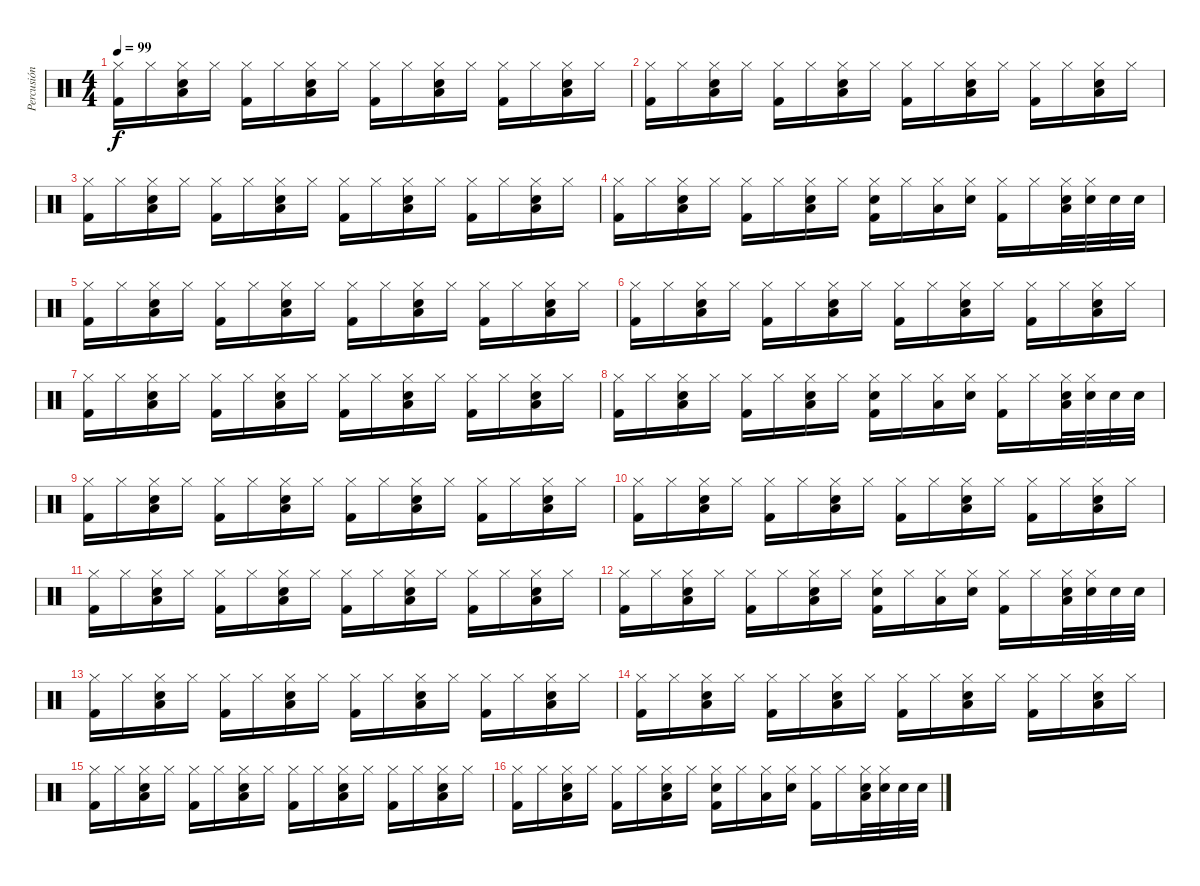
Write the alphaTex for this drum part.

\track ("Percusión" "Percusión") {instrument percussion}
\staff {score}
\articulation defaults
\ts (4 4)
\tempo 99
\clef neutral
\ks c
("Hi-Hat (closed)" "Kick (hit) 2").16{dy f} "Hi-Hat (closed)".16 ("Hi-Hat (closed)" "Snare (hit) 2" "Low Tom (hit)").16 "Hi-Hat (closed)".16 ("Hi-Hat (closed)" "Kick (hit) 2").16 "Hi-Hat (closed)".16 ("Hi-Hat (closed)" "Snare (hit) 2" "Low Tom (hit)").16 "Hi-Hat (closed)".16 ("Hi-Hat (closed)" "Kick (hit) 2").16 "Hi-Hat (closed)".16 ("Hi-Hat (closed)" "Snare (hit) 2" "Low Tom (hit)").16 "Hi-Hat (closed)".16 ("Hi-Hat (closed)" "Kick (hit) 2").16 "Hi-Hat (closed)".16 ("Hi-Hat (closed)" "Snare (hit) 2" "Low Tom (hit)").16 "Hi-Hat (closed)".16 |
("Hi-Hat (closed)" "Kick (hit) 2").16 "Hi-Hat (closed)".16 ("Hi-Hat (closed)" "Snare (hit) 2" "Low Tom (hit)").16 "Hi-Hat (closed)".16 ("Hi-Hat (closed)" "Kick (hit) 2").16 "Hi-Hat (closed)".16 ("Hi-Hat (closed)" "Snare (hit) 2" "Low Tom (hit)").16 "Hi-Hat (closed)".16 ("Hi-Hat (closed)" "Kick (hit) 2").16 "Hi-Hat (closed)".16 ("Hi-Hat (closed)" "Snare (hit) 2" "Low Tom (hit)").16 "Hi-Hat (closed)".16 ("Hi-Hat (closed)" "Kick (hit) 2").16 "Hi-Hat (closed)".16 ("Hi-Hat (closed)" "Snare (hit) 2" "Low Tom (hit)").16 "Hi-Hat (closed)".16 |
("Hi-Hat (closed)" "Kick (hit) 2").16 "Hi-Hat (closed)".16 ("Hi-Hat (closed)" "Snare (hit) 2" "Low Tom (hit)").16 "Hi-Hat (closed)".16 ("Hi-Hat (closed)" "Kick (hit) 2").16 "Hi-Hat (closed)".16 ("Hi-Hat (closed)" "Snare (hit) 2" "Low Tom (hit)").16 "Hi-Hat (closed)".16 ("Hi-Hat (closed)" "Kick (hit) 2").16 "Hi-Hat (closed)".16 ("Hi-Hat (closed)" "Snare (hit) 2" "Low Tom (hit)").16 "Hi-Hat (closed)".16 ("Hi-Hat (closed)" "Kick (hit) 2").16 "Hi-Hat (closed)".16 ("Hi-Hat (closed)" "Snare (hit) 2" "Low Tom (hit)").16 "Hi-Hat (closed)".16 |
("Hi-Hat (closed)" "Kick (hit) 2").16 "Hi-Hat (closed)".16 ("Hi-Hat (closed)" "Snare (hit) 2" "Low Tom (hit)").16 "Hi-Hat (closed)".16 ("Hi-Hat (closed)" "Kick (hit) 2").16 "Hi-Hat (closed)".16 ("Hi-Hat (closed)" "Snare (hit) 2" "Low Tom (hit)").16 "Hi-Hat (closed)".16 ("Hi-Hat (closed)" "Snare (hit) 2" "Kick (hit) 2").16 "Hi-Hat (closed)".16 ("Hi-Hat (closed)" "Low Tom (hit)").16 ("Hi-Hat (closed)" "Snare (hit) 2").16 ("Hi-Hat (closed)" "Kick (hit) 2").16 "Hi-Hat (closed)".16 ("Hi-Hat (closed)" "Snare (hit) 2" "Low Tom (hit)").32 ("Hi-Hat (closed)" "Snare (hit) 2").32 "Snare (hit) 2".32 "Snare (hit) 2".32 |
("Hi-Hat (closed)" "Kick (hit) 2").16 "Hi-Hat (closed)".16 ("Hi-Hat (closed)" "Snare (hit) 2" "Low Tom (hit)").16 "Hi-Hat (closed)".16 ("Hi-Hat (closed)" "Kick (hit) 2").16 "Hi-Hat (closed)".16 ("Hi-Hat (closed)" "Snare (hit) 2" "Low Tom (hit)").16 "Hi-Hat (closed)".16 ("Hi-Hat (closed)" "Kick (hit) 2").16 "Hi-Hat (closed)".16 ("Hi-Hat (closed)" "Snare (hit) 2" "Low Tom (hit)").16 "Hi-Hat (closed)".16 ("Hi-Hat (closed)" "Kick (hit) 2").16 "Hi-Hat (closed)".16 ("Hi-Hat (closed)" "Snare (hit) 2" "Low Tom (hit)").16 "Hi-Hat (closed)".16 |
("Hi-Hat (closed)" "Kick (hit) 2").16 "Hi-Hat (closed)".16 ("Hi-Hat (closed)" "Snare (hit) 2" "Low Tom (hit)").16 "Hi-Hat (closed)".16 ("Hi-Hat (closed)" "Kick (hit) 2").16 "Hi-Hat (closed)".16 ("Hi-Hat (closed)" "Snare (hit) 2" "Low Tom (hit)").16 "Hi-Hat (closed)".16 ("Hi-Hat (closed)" "Kick (hit) 2").16 "Hi-Hat (closed)".16 ("Hi-Hat (closed)" "Snare (hit) 2" "Low Tom (hit)").16 "Hi-Hat (closed)".16 ("Hi-Hat (closed)" "Kick (hit) 2").16 "Hi-Hat (closed)".16 ("Hi-Hat (closed)" "Snare (hit) 2" "Low Tom (hit)").16 "Hi-Hat (closed)".16 |
("Hi-Hat (closed)" "Kick (hit) 2").16 "Hi-Hat (closed)".16 ("Hi-Hat (closed)" "Snare (hit) 2" "Low Tom (hit)").16 "Hi-Hat (closed)".16 ("Hi-Hat (closed)" "Kick (hit) 2").16 "Hi-Hat (closed)".16 ("Hi-Hat (closed)" "Snare (hit) 2" "Low Tom (hit)").16 "Hi-Hat (closed)".16 ("Hi-Hat (closed)" "Kick (hit) 2").16 "Hi-Hat (closed)".16 ("Hi-Hat (closed)" "Snare (hit) 2" "Low Tom (hit)").16 "Hi-Hat (closed)".16 ("Hi-Hat (closed)" "Kick (hit) 2").16 "Hi-Hat (closed)".16 ("Hi-Hat (closed)" "Snare (hit) 2" "Low Tom (hit)").16 "Hi-Hat (closed)".16 |
("Hi-Hat (closed)" "Kick (hit) 2").16 "Hi-Hat (closed)".16 ("Hi-Hat (closed)" "Snare (hit) 2" "Low Tom (hit)").16 "Hi-Hat (closed)".16 ("Hi-Hat (closed)" "Kick (hit) 2").16 "Hi-Hat (closed)".16 ("Hi-Hat (closed)" "Snare (hit) 2" "Low Tom (hit)").16 "Hi-Hat (closed)".16 ("Hi-Hat (closed)" "Snare (hit) 2" "Kick (hit) 2").16 "Hi-Hat (closed)".16 ("Hi-Hat (closed)" "Low Tom (hit)").16 ("Hi-Hat (closed)" "Snare (hit) 2").16 ("Hi-Hat (closed)" "Kick (hit) 2").16 "Hi-Hat (closed)".16 ("Hi-Hat (closed)" "Snare (hit) 2" "Low Tom (hit)").32 ("Hi-Hat (closed)" "Snare (hit) 2").32 "Snare (hit) 2".32 "Snare (hit) 2".32 |
("Hi-Hat (closed)" "Kick (hit) 2").16 "Hi-Hat (closed)".16 ("Hi-Hat (closed)" "Snare (hit) 2" "Low Tom (hit)").16 "Hi-Hat (closed)".16 ("Hi-Hat (closed)" "Kick (hit) 2").16 "Hi-Hat (closed)".16 ("Hi-Hat (closed)" "Snare (hit) 2" "Low Tom (hit)").16 "Hi-Hat (closed)".16 ("Hi-Hat (closed)" "Kick (hit) 2").16 "Hi-Hat (closed)".16 ("Hi-Hat (closed)" "Snare (hit) 2" "Low Tom (hit)").16 "Hi-Hat (closed)".16 ("Hi-Hat (closed)" "Kick (hit) 2").16 "Hi-Hat (closed)".16 ("Hi-Hat (closed)" "Snare (hit) 2" "Low Tom (hit)").16 "Hi-Hat (closed)".16 |
("Hi-Hat (closed)" "Kick (hit) 2").16 "Hi-Hat (closed)".16 ("Hi-Hat (closed)" "Snare (hit) 2" "Low Tom (hit)").16 "Hi-Hat (closed)".16 ("Hi-Hat (closed)" "Kick (hit) 2").16 "Hi-Hat (closed)".16 ("Hi-Hat (closed)" "Snare (hit) 2" "Low Tom (hit)").16 "Hi-Hat (closed)".16 ("Hi-Hat (closed)" "Kick (hit) 2").16 "Hi-Hat (closed)".16 ("Hi-Hat (closed)" "Snare (hit) 2" "Low Tom (hit)").16 "Hi-Hat (closed)".16 ("Hi-Hat (closed)" "Kick (hit) 2").16 "Hi-Hat (closed)".16 ("Hi-Hat (closed)" "Snare (hit) 2" "Low Tom (hit)").16 "Hi-Hat (closed)".16 |
("Hi-Hat (closed)" "Kick (hit) 2").16 "Hi-Hat (closed)".16 ("Hi-Hat (closed)" "Snare (hit) 2" "Low Tom (hit)").16 "Hi-Hat (closed)".16 ("Hi-Hat (closed)" "Kick (hit) 2").16 "Hi-Hat (closed)".16 ("Hi-Hat (closed)" "Snare (hit) 2" "Low Tom (hit)").16 "Hi-Hat (closed)".16 ("Hi-Hat (closed)" "Kick (hit) 2").16 "Hi-Hat (closed)".16 ("Hi-Hat (closed)" "Snare (hit) 2" "Low Tom (hit)").16 "Hi-Hat (closed)".16 ("Hi-Hat (closed)" "Kick (hit) 2").16 "Hi-Hat (closed)".16 ("Hi-Hat (closed)" "Snare (hit) 2" "Low Tom (hit)").16 "Hi-Hat (closed)".16 |
("Hi-Hat (closed)" "Kick (hit) 2").16 "Hi-Hat (closed)".16 ("Hi-Hat (closed)" "Snare (hit) 2" "Low Tom (hit)").16 "Hi-Hat (closed)".16 ("Hi-Hat (closed)" "Kick (hit) 2").16 "Hi-Hat (closed)".16 ("Hi-Hat (closed)" "Snare (hit) 2" "Low Tom (hit)").16 "Hi-Hat (closed)".16 ("Hi-Hat (closed)" "Snare (hit) 2" "Kick (hit) 2").16 "Hi-Hat (closed)".16 ("Hi-Hat (closed)" "Low Tom (hit)").16 ("Hi-Hat (closed)" "Snare (hit) 2").16 ("Hi-Hat (closed)" "Kick (hit) 2").16 "Hi-Hat (closed)".16 ("Hi-Hat (closed)" "Snare (hit) 2" "Low Tom (hit)").32 ("Hi-Hat (closed)" "Snare (hit) 2").32 "Snare (hit) 2".32 "Snare (hit) 2".32 |
("Hi-Hat (closed)" "Kick (hit) 2").16 "Hi-Hat (closed)".16 ("Hi-Hat (closed)" "Snare (hit) 2" "Low Tom (hit)").16 "Hi-Hat (closed)".16 ("Hi-Hat (closed)" "Kick (hit) 2").16 "Hi-Hat (closed)".16 ("Hi-Hat (closed)" "Snare (hit) 2" "Low Tom (hit)").16 "Hi-Hat (closed)".16 ("Hi-Hat (closed)" "Kick (hit) 2").16 "Hi-Hat (closed)".16 ("Hi-Hat (closed)" "Snare (hit) 2" "Low Tom (hit)").16 "Hi-Hat (closed)".16 ("Hi-Hat (closed)" "Kick (hit) 2").16 "Hi-Hat (closed)".16 ("Hi-Hat (closed)" "Snare (hit) 2" "Low Tom (hit)").16 "Hi-Hat (closed)".16 |
("Hi-Hat (closed)" "Kick (hit) 2").16 "Hi-Hat (closed)".16 ("Hi-Hat (closed)" "Snare (hit) 2" "Low Tom (hit)").16 "Hi-Hat (closed)".16 ("Hi-Hat (closed)" "Kick (hit) 2").16 "Hi-Hat (closed)".16 ("Hi-Hat (closed)" "Snare (hit) 2" "Low Tom (hit)").16 "Hi-Hat (closed)".16 ("Hi-Hat (closed)" "Kick (hit) 2").16 "Hi-Hat (closed)".16 ("Hi-Hat (closed)" "Snare (hit) 2" "Low Tom (hit)").16 "Hi-Hat (closed)".16 ("Hi-Hat (closed)" "Kick (hit) 2").16 "Hi-Hat (closed)".16 ("Hi-Hat (closed)" "Snare (hit) 2" "Low Tom (hit)").16 "Hi-Hat (closed)".16 |
("Hi-Hat (closed)" "Kick (hit) 2").16 "Hi-Hat (closed)".16 ("Hi-Hat (closed)" "Snare (hit) 2" "Low Tom (hit)").16 "Hi-Hat (closed)".16 ("Hi-Hat (closed)" "Kick (hit) 2").16 "Hi-Hat (closed)".16 ("Hi-Hat (closed)" "Snare (hit) 2" "Low Tom (hit)").16 "Hi-Hat (closed)".16 ("Hi-Hat (closed)" "Kick (hit) 2").16 "Hi-Hat (closed)".16 ("Hi-Hat (closed)" "Snare (hit) 2" "Low Tom (hit)").16 "Hi-Hat (closed)".16 ("Hi-Hat (closed)" "Kick (hit) 2").16 "Hi-Hat (closed)".16 ("Hi-Hat (closed)" "Snare (hit) 2" "Low Tom (hit)").16 "Hi-Hat (closed)".16 |
("Hi-Hat (closed)" "Kick (hit) 2").16 "Hi-Hat (closed)".16 ("Hi-Hat (closed)" "Snare (hit) 2" "Low Tom (hit)").16 "Hi-Hat (closed)".16 ("Hi-Hat (closed)" "Kick (hit) 2").16 "Hi-Hat (closed)".16 ("Hi-Hat (closed)" "Snare (hit) 2" "Low Tom (hit)").16 "Hi-Hat (closed)".16 ("Hi-Hat (closed)" "Snare (hit) 2" "Kick (hit) 2").16 "Hi-Hat (closed)".16 ("Hi-Hat (closed)" "Low Tom (hit)").16 ("Hi-Hat (closed)" "Snare (hit) 2").16 ("Hi-Hat (closed)" "Kick (hit) 2").16 "Hi-Hat (closed)".16 ("Hi-Hat (closed)" "Snare (hit) 2" "Low Tom (hit)").32 ("Hi-Hat (closed)" "Snare (hit) 2").32 "Snare (hit) 2".32 "Snare (hit) 2".32
